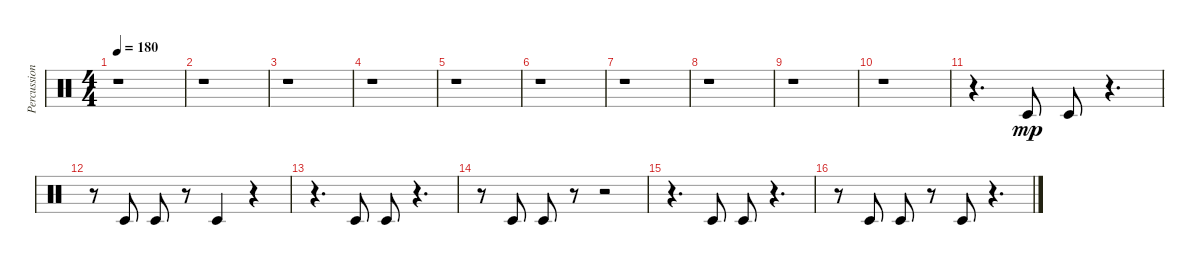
\track ("Percussion" "Percussion") {instrument percussion}
\staff {score}
\articulation defaults
\ts (4 4)
\tempo 180
\clef neutral
\ks c
r.1{dy mp} |
r.1 |
r.1 |
r.1 |
r.1 |
r.1 |
r.1 |
r.1 |
r.1 |
r.1 |
r.4{d} "Timbale low (hit)".8 "Timbale low (hit)".8 r.4{d} |
r.8 "Timbale low (hit)".8 "Timbale low (hit)".8 r.8 "Timbale low (hit)".4 r.4 |
r.4{d} "Timbale low (hit)".8 "Timbale low (hit)".8 r.4{d} |
r.8 "Timbale low (hit)".8 "Timbale low (hit)".8 r.8 r.2 |
r.4{d} "Timbale low (hit)".8 "Timbale low (hit)".8 r.4{d} |
r.8 "Timbale low (hit)".8 "Timbale low (hit)".8 r.8 "Timbale low (hit)".8 r.4{d}
